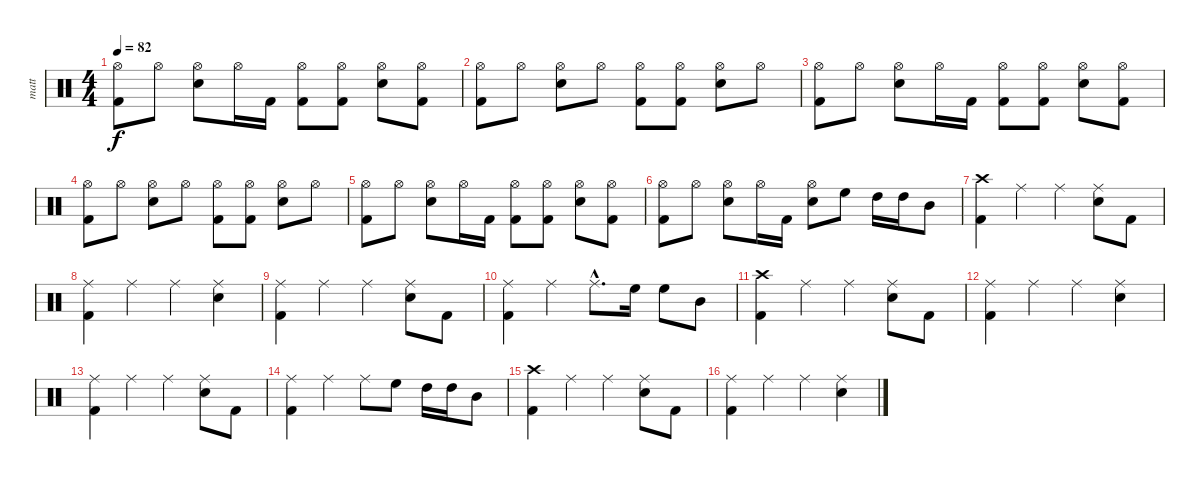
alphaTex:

\track ("matt" "matt") {instrument percussion}
\staff {score}
\articulation defaults
\ts (4 4)
\tempo 82
\clef neutral
\ks c
("Hi-Hat (open)" "Kick (hit) 2").8{dy f} "Hi-Hat (open)".8 ("Hi-Hat (open)" "Electric Snare (hit)").8 "Hi-Hat (open)".16 "Kick (hit) 2".16 ("Hi-Hat (open)" "Kick (hit) 2").8 ("Hi-Hat (open)" "Kick (hit) 2").8 ("Hi-Hat (open)" "Electric Snare (hit)").8 ("Hi-Hat (open)" "Kick (hit) 2").8 |
("Hi-Hat (open)" "Kick (hit) 2").8 "Hi-Hat (open)".8 ("Hi-Hat (open)" "Electric Snare (hit)").8 "Hi-Hat (open)".8 ("Hi-Hat (open)" "Kick (hit) 2").8 ("Hi-Hat (open)" "Kick (hit) 2").8 ("Hi-Hat (open)" "Electric Snare (hit)").8 "Hi-Hat (open)".8 |
("Hi-Hat (open)" "Kick (hit) 2").8 "Hi-Hat (open)".8 ("Hi-Hat (open)" "Electric Snare (hit)").8 "Hi-Hat (open)".16 "Kick (hit) 2".16 ("Hi-Hat (open)" "Kick (hit) 2").8 ("Hi-Hat (open)" "Kick (hit) 2").8 ("Hi-Hat (open)" "Electric Snare (hit)").8 ("Hi-Hat (open)" "Kick (hit) 2").8 |
("Hi-Hat (open)" "Kick (hit) 2").8 "Hi-Hat (open)".8 ("Hi-Hat (open)" "Electric Snare (hit)").8 "Hi-Hat (open)".8 ("Hi-Hat (open)" "Kick (hit) 2").8 ("Hi-Hat (open)" "Kick (hit) 2").8 ("Hi-Hat (open)" "Electric Snare (hit)").8 "Hi-Hat (open)".8 |
("Hi-Hat (open)" "Kick (hit) 2").8 "Hi-Hat (open)".8 ("Hi-Hat (open)" "Electric Snare (hit)").8 "Hi-Hat (open)".16 "Kick (hit) 2".16 ("Hi-Hat (open)" "Kick (hit) 2").8 ("Hi-Hat (open)" "Kick (hit) 2").8 ("Hi-Hat (open)" "Electric Snare (hit)").8 ("Hi-Hat (open)" "Kick (hit) 2").8 |
("Hi-Hat (open)" "Kick (hit) 2").8 "Hi-Hat (open)".8 ("Hi-Hat (open)" "Electric Snare (hit)").8 "Hi-Hat (open)".16 "Kick (hit) 2".16 ("Hi-Hat (open)" "Electric Snare (hit)").8 "High Floor Tom (hit)".8 "High Tom (hit)".16 "High Tom (hit)".16 "Mid Tom (hit)".8 |
("Crash high (hit)" "Kick (hit) 2").4 "Ride (middle)".4 "Ride (middle)".4 ("Ride (middle)" "Electric Snare (hit)").8 "Kick (hit) 2".8 |
("Ride (middle)" "Kick (hit) 2").4 "Ride (middle)".4 "Ride (middle)".4 ("Ride (middle)" "Electric Snare (hit)").4 |
("Ride (middle)" "Kick (hit) 2").4 "Ride (middle)".4 "Ride (middle)".4 ("Ride (middle)" "Electric Snare (hit)").8 "Kick (hit) 2".8 |
("Ride (middle)" "Kick (hit) 2").4 "Ride (middle)".4 "Ride (middle)"{hac}.8{d} "High Floor Tom (hit)".16 "High Floor Tom (hit)".8 "Mid Tom (hit)".8 |
("Crash high (hit)" "Kick (hit) 2").4 "Ride (middle)".4 "Ride (middle)".4 ("Ride (middle)" "Electric Snare (hit)").8 "Kick (hit) 2".8 |
("Ride (middle)" "Kick (hit) 2").4 "Ride (middle)".4 "Ride (middle)".4 ("Ride (middle)" "Electric Snare (hit)").4 |
("Ride (middle)" "Kick (hit) 2").4 "Ride (middle)".4 "Ride (middle)".4 ("Ride (middle)" "Electric Snare (hit)").8 "Kick (hit) 2".8 |
("Ride (middle)" "Kick (hit) 2").4 "Ride (middle)".4 "Ride (middle)".8 "High Floor Tom (hit)".8 "High Tom (hit)".16 "High Tom (hit)".16 "Mid Tom (hit)".8 |
("Crash high (hit)" "Kick (hit) 2").4 "Ride (middle)".4 "Ride (middle)".4 ("Ride (middle)" "Electric Snare (hit)").8 "Kick (hit) 2".8 |
("Ride (middle)" "Kick (hit) 2").4 "Ride (middle)".4 "Ride (middle)".4 ("Ride (middle)" "Electric Snare (hit)").4
